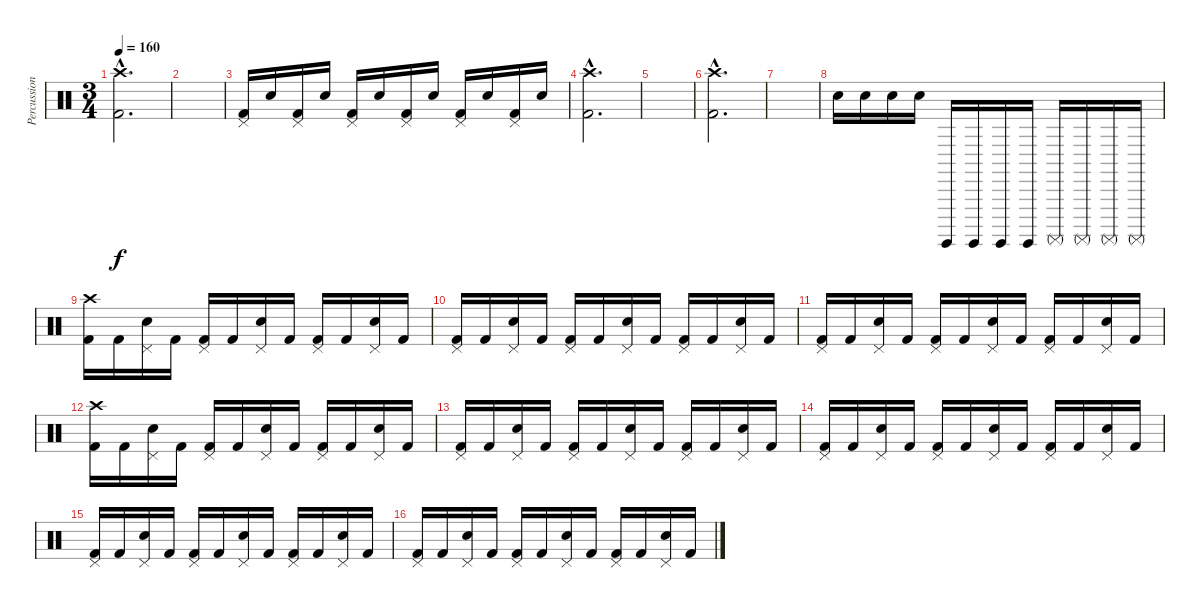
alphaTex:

\track ("Percussion" "Percussion") {instrument percussion}
\staff {score}
\articulation defaults
\ts (3 4)
\tempo 160
\clef neutral
\ks c
("Crash high (hit)"{hac} "Kick (hit) 2"{hac}).2{d dy f} |
|
("Pedal Hi-Hat (hit)" "Kick (hit) 2").16 "Snare (hit) 2".16 ("Pedal Hi-Hat (hit)" "Kick (hit) 2").16 "Snare (hit) 2".16 ("Pedal Hi-Hat (hit)" "Kick (hit) 2").16 "Snare (hit) 2".16 ("Pedal Hi-Hat (hit)" "Kick (hit) 2").16 "Snare (hit) 2".16 ("Pedal Hi-Hat (hit)" "Kick (hit) 2").16 "Snare (hit) 2".16 ("Pedal Hi-Hat (hit)" "Kick (hit) 2").16 "Snare (hit) 2".16 |
("Crash high (hit)"{hac} "Kick (hit) 2"{hac}).2{d} |
|
("Crash high (hit)"{hac} "Kick (hit) 2"{hac}).2{d} |
|
"Snare (hit) 2".16 "Snare (hit) 2".16 "Snare (hit) 2".16 "Snare (hit) 2".16 "Surdo (hit)".16 "Surdo (hit)".16 "Surdo (hit)".16 "Surdo (hit)".16 "Surdo (mute)".16 "Surdo (mute)".16 "Surdo (mute)".16 "Surdo (mute)".16 |
("Crash high (hit)" "Kick (hit) 2").16 "Kick (hit) 2".16 ("Pedal Hi-Hat (hit)" "Snare (hit) 2").16 "Kick (hit) 2".16 ("Pedal Hi-Hat (hit)" "Kick (hit) 2").16 "Kick (hit) 2".16 ("Pedal Hi-Hat (hit)" "Snare (hit) 2").16 "Kick (hit) 2".16 ("Pedal Hi-Hat (hit)" "Kick (hit) 2").16 "Kick (hit) 2".16 ("Pedal Hi-Hat (hit)" "Snare (hit) 2").16 "Kick (hit) 2".16 |
("Pedal Hi-Hat (hit)" "Kick (hit) 2").16 "Kick (hit) 2".16 ("Pedal Hi-Hat (hit)" "Snare (hit) 2").16 "Kick (hit) 2".16 ("Pedal Hi-Hat (hit)" "Kick (hit) 2").16 "Kick (hit) 2".16 ("Pedal Hi-Hat (hit)" "Snare (hit) 2").16 "Kick (hit) 2".16 ("Pedal Hi-Hat (hit)" "Kick (hit) 2").16 "Kick (hit) 2".16 ("Pedal Hi-Hat (hit)" "Snare (hit) 2").16 "Kick (hit) 2".16 |
("Pedal Hi-Hat (hit)" "Kick (hit) 2").16 "Kick (hit) 2".16 ("Pedal Hi-Hat (hit)" "Snare (hit) 2").16 "Kick (hit) 2".16 ("Pedal Hi-Hat (hit)" "Kick (hit) 2").16 "Kick (hit) 2".16 ("Pedal Hi-Hat (hit)" "Snare (hit) 2").16 "Kick (hit) 2".16 ("Pedal Hi-Hat (hit)" "Kick (hit) 2").16 "Kick (hit) 2".16 ("Pedal Hi-Hat (hit)" "Snare (hit) 2").16 "Kick (hit) 2".16 |
("Crash high (hit)" "Kick (hit) 2").16 "Kick (hit) 2".16 ("Pedal Hi-Hat (hit)" "Snare (hit) 2").16 "Kick (hit) 2".16 ("Pedal Hi-Hat (hit)" "Kick (hit) 2").16 "Kick (hit) 2".16 ("Pedal Hi-Hat (hit)" "Snare (hit) 2").16 "Kick (hit) 2".16 ("Pedal Hi-Hat (hit)" "Kick (hit) 2").16 "Kick (hit) 2".16 ("Pedal Hi-Hat (hit)" "Snare (hit) 2").16 "Kick (hit) 2".16 |
("Pedal Hi-Hat (hit)" "Kick (hit) 2").16 "Kick (hit) 2".16 ("Pedal Hi-Hat (hit)" "Snare (hit) 2").16 "Kick (hit) 2".16 ("Pedal Hi-Hat (hit)" "Kick (hit) 2").16 "Kick (hit) 2".16 ("Pedal Hi-Hat (hit)" "Snare (hit) 2").16 "Kick (hit) 2".16 ("Pedal Hi-Hat (hit)" "Kick (hit) 2").16 "Kick (hit) 2".16 ("Pedal Hi-Hat (hit)" "Snare (hit) 2").16 "Kick (hit) 2".16 |
("Pedal Hi-Hat (hit)" "Kick (hit) 2").16 "Kick (hit) 2".16 ("Pedal Hi-Hat (hit)" "Snare (hit) 2").16 "Kick (hit) 2".16 ("Pedal Hi-Hat (hit)" "Kick (hit) 2").16 "Kick (hit) 2".16 ("Pedal Hi-Hat (hit)" "Snare (hit) 2").16 "Kick (hit) 2".16 ("Pedal Hi-Hat (hit)" "Kick (hit) 2").16 "Kick (hit) 2".16 ("Pedal Hi-Hat (hit)" "Snare (hit) 2").16 "Kick (hit) 2".16 |
("Pedal Hi-Hat (hit)" "Kick (hit) 2").16 "Kick (hit) 2".16 ("Pedal Hi-Hat (hit)" "Snare (hit) 2").16 "Kick (hit) 2".16 ("Pedal Hi-Hat (hit)" "Kick (hit) 2").16 "Kick (hit) 2".16 ("Pedal Hi-Hat (hit)" "Snare (hit) 2").16 "Kick (hit) 2".16 ("Pedal Hi-Hat (hit)" "Kick (hit) 2").16 "Kick (hit) 2".16 ("Pedal Hi-Hat (hit)" "Snare (hit) 2").16 "Kick (hit) 2".16 |
("Pedal Hi-Hat (hit)" "Kick (hit) 2").16 "Kick (hit) 2".16 ("Pedal Hi-Hat (hit)" "Snare (hit) 2").16 "Kick (hit) 2".16 ("Pedal Hi-Hat (hit)" "Kick (hit) 2").16 "Kick (hit) 2".16 ("Pedal Hi-Hat (hit)" "Snare (hit) 2").16 "Kick (hit) 2".16 ("Pedal Hi-Hat (hit)" "Kick (hit) 2").16 "Kick (hit) 2".16 ("Pedal Hi-Hat (hit)" "Snare (hit) 2").16 "Kick (hit) 2".16
